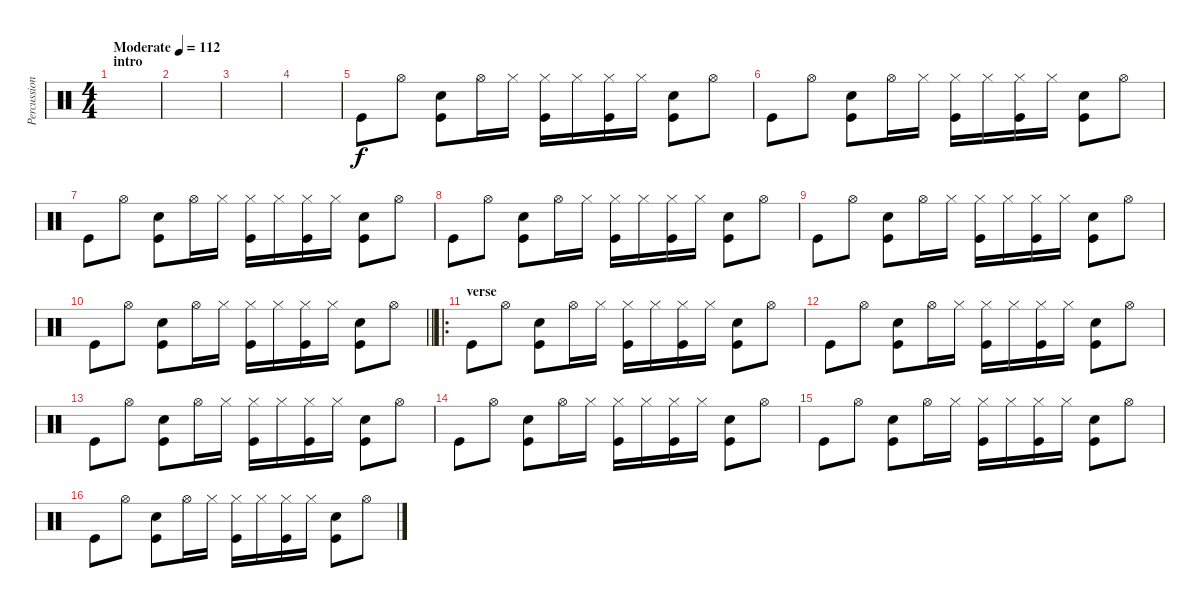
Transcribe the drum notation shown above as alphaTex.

\track ("Percussion" "Percussion") {instrument percussion}
\staff {score}
\articulation defaults
\ts (4 4)
\section ("" "intro")
\tempo (112 "Moderate")
\clef neutral
\ks c
|
|
|
|
"Kick (hit)".8 "Hi-Hat (open)".8 ("Snare (hit) 2" "Kick (hit)").8 "Hi-Hat (open)".16 "Hi-Hat (closed)".16 ("Hi-Hat (closed)" "Kick (hit)").16 "Hi-Hat (closed)".16 ("Hi-Hat (closed)" "Kick (hit)").16 "Hi-Hat (closed)".16 ("Snare (hit) 2" "Kick (hit)").8 "Hi-Hat (open)".8 |
"Kick (hit)".8 "Hi-Hat (open)".8 ("Snare (hit) 2" "Kick (hit)").8 "Hi-Hat (open)".16 "Hi-Hat (closed)".16 ("Hi-Hat (closed)" "Kick (hit)").16 "Hi-Hat (closed)".16 ("Hi-Hat (closed)" "Kick (hit)").16 "Hi-Hat (closed)".16 ("Snare (hit) 2" "Kick (hit)").8 "Hi-Hat (open)".8 |
"Kick (hit)".8 "Hi-Hat (open)".8 ("Snare (hit) 2" "Kick (hit)").8 "Hi-Hat (open)".16 "Hi-Hat (closed)".16 ("Hi-Hat (closed)" "Kick (hit)").16 "Hi-Hat (closed)".16 ("Hi-Hat (closed)" "Kick (hit)").16 "Hi-Hat (closed)".16 ("Snare (hit) 2" "Kick (hit)").8 "Hi-Hat (open)".8 |
"Kick (hit)".8 "Hi-Hat (open)".8 ("Snare (hit) 2" "Kick (hit)").8 "Hi-Hat (open)".16 "Hi-Hat (closed)".16 ("Hi-Hat (closed)" "Kick (hit)").16 "Hi-Hat (closed)".16 ("Hi-Hat (closed)" "Kick (hit)").16 "Hi-Hat (closed)".16 ("Snare (hit) 2" "Kick (hit)").8 "Hi-Hat (open)".8 |
"Kick (hit)".8 "Hi-Hat (open)".8 ("Snare (hit) 2" "Kick (hit)").8 "Hi-Hat (open)".16 "Hi-Hat (closed)".16 ("Hi-Hat (closed)" "Kick (hit)").16 "Hi-Hat (closed)".16 ("Hi-Hat (closed)" "Kick (hit)").16 "Hi-Hat (closed)".16 ("Snare (hit) 2" "Kick (hit)").8 "Hi-Hat (open)".8 |
\barLineRight lightlight "Kick (hit)".8 "Hi-Hat (open)".8
("Snare (hit) 2" "Kick (hit)").8 "Hi-Hat (open)".16 "Hi-Hat (closed)".16 ("Hi-Hat (closed)" "Kick (hit)").16 "Hi-Hat (closed)".16 ("Hi-Hat (closed)" "Kick (hit)").16 "Hi-Hat (closed)".16 ("Snare (hit) 2" "Kick (hit)").8 "Hi-Hat (open)".8 |
\ro
\section ("" "verse")
"Kick (hit)".8 "Hi-Hat (open)".8 ("Snare (hit) 2" "Kick (hit)").8 "Hi-Hat (open)".16 "Hi-Hat (closed)".16 ("Hi-Hat (closed)" "Kick (hit)").16 "Hi-Hat (closed)".16 ("Hi-Hat (closed)" "Kick (hit)").16 "Hi-Hat (closed)".16 ("Snare (hit) 2" "Kick (hit)").8 "Hi-Hat (open)".8 |
"Kick (hit)".8 "Hi-Hat (open)".8 ("Snare (hit) 2" "Kick (hit)").8 "Hi-Hat (open)".16 "Hi-Hat (closed)".16 ("Hi-Hat (closed)" "Kick (hit)").16 "Hi-Hat (closed)".16 ("Hi-Hat (closed)" "Kick (hit)").16 "Hi-Hat (closed)".16 ("Snare (hit) 2" "Kick (hit)").8 "Hi-Hat (open)".8 |
"Kick (hit)".8 "Hi-Hat (open)".8 ("Snare (hit) 2" "Kick (hit)").8 "Hi-Hat (open)".16 "Hi-Hat (closed)".16 ("Hi-Hat (closed)" "Kick (hit)").16 "Hi-Hat (closed)".16 ("Hi-Hat (closed)" "Kick (hit)").16 "Hi-Hat (closed)".16 ("Snare (hit) 2" "Kick (hit)").8 "Hi-Hat (open)".8 |
"Kick (hit)".8 "Hi-Hat (open)".8 ("Snare (hit) 2" "Kick (hit)").8 "Hi-Hat (open)".16 "Hi-Hat (closed)".16 ("Hi-Hat (closed)" "Kick (hit)").16 "Hi-Hat (closed)".16 ("Hi-Hat (closed)" "Kick (hit)").16 "Hi-Hat (closed)".16 ("Snare (hit) 2" "Kick (hit)").8 "Hi-Hat (open)".8 |
"Kick (hit)".8 "Hi-Hat (open)".8 ("Snare (hit) 2" "Kick (hit)").8 "Hi-Hat (open)".16 "Hi-Hat (closed)".16 ("Hi-Hat (closed)" "Kick (hit)").16 "Hi-Hat (closed)".16 ("Hi-Hat (closed)" "Kick (hit)").16 "Hi-Hat (closed)".16 ("Snare (hit) 2" "Kick (hit)").8 "Hi-Hat (open)".8 |
"Kick (hit)".8 "Hi-Hat (open)".8 ("Snare (hit) 2" "Kick (hit)").8 "Hi-Hat (open)".16 "Hi-Hat (closed)".16 ("Hi-Hat (closed)" "Kick (hit)").16 "Hi-Hat (closed)".16 ("Hi-Hat (closed)" "Kick (hit)").16 "Hi-Hat (closed)".16 ("Snare (hit) 2" "Kick (hit)").8 "Hi-Hat (open)".8
